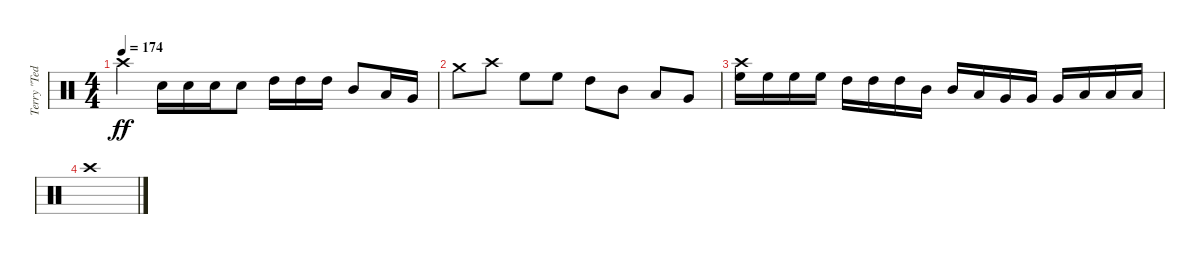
\track ("Terry \"Ted\" Bozzio" "Terry \"Ted") {instrument percussion}
\staff {score}
\articulation defaults
\ts (4 4)
\tempo 174
\clef neutral
\ks c "Crash high (hit)".4{dy ff} "Electric Snare (hit)".16 "Electric Snare (hit)".16 "Electric Snare (hit)".16 "Electric Snare (hit)".8 "High Tom (hit)".16 "High Tom (hit)".16 "High Tom (hit)".16 "Mid Tom (hit)".8 "Low Tom (hit)".16 "Very Low Tom (hit)".16
|
"Crash medium (hit)".8 "Crash high (hit)".8 "High Floor Tom (hit)".8 "High Floor Tom (hit)".8 "High Tom (hit)".8 "Mid Tom (hit)".8 "Low Tom (hit)".8 "Very Low Tom (hit)".8 |
("Crash high (hit)" "High Floor Tom (hit)").16 "High Floor Tom (hit)".16 "High Floor Tom (hit)".16 "High Floor Tom (hit)".16 "High Tom (hit)".16 "High Tom (hit)".16 "High Tom (hit)".16 "Mid Tom (hit)".16 "Mid Tom (hit)".16 "Low Tom (hit)".16 "Very Low Tom (hit)".16 "Very Low Tom (hit)".16 "Very Low Tom (hit)".16 "Low Floor Tom (hit)".16 "Low Floor Tom (hit)".16 "Low Floor Tom (hit)".16 |
"Crash high (hit)".1
